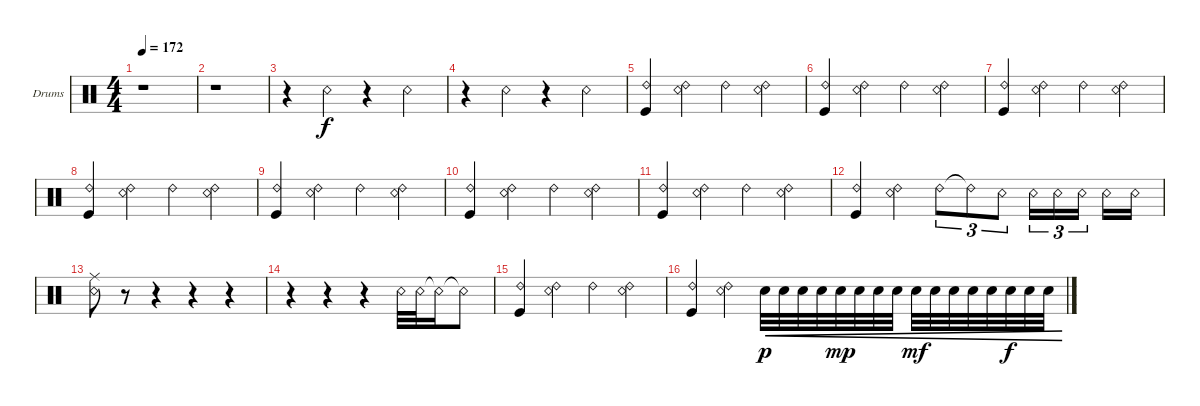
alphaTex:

\defaultSystemsLayout 4
\bracketExtendMode groupsimilarinstruments
\firstSystemTrackNameOrientation horizontal
\otherSystemsTrackNameOrientation horizontal
\track ("Drums" "Drums") {instrument percussion}
\staff {score}
\articulation defaults
\ts (4 4)
\tempo 172
\clef neutral
\scale
0.333333
\ks c
r.1{dy f} |
\scale
0.333333 r.1 |
\scale
0.333333 r.4 "Snare (rim shot)".4 r.4 "Snare (rim shot)".4 |
\scale
0.333333 r.4 "Snare (rim shot)".4 r.4 "Snare (rim shot)".4 |
\scale
0.333333 ("Ride (bell) 2" "Kick (hit)").4 ("Ride (bell) 2" "Snare (rim shot)").4 "Ride (bell) 2".4 ("Snare (rim shot)" "Ride (bell) 2").4 |
\scale
0.333333 ("Ride (bell) 2" "Kick (hit)").4 ("Ride (bell) 2" "Snare (rim shot)").4 "Ride (bell) 2".4 ("Snare (rim shot)" "Ride (bell) 2").4 |
\scale
0.333333 ("Ride (bell) 2" "Kick (hit)").4 ("Ride (bell) 2" "Snare (rim shot)").4 "Ride (bell) 2".4 ("Snare (rim shot)" "Ride (bell) 2").4 |
("Ride (bell) 2" "Kick (hit)").4 ("Ride (bell) 2" "Snare (rim shot)").4 "Ride (bell) 2".4 ("Snare (rim shot)" "Ride (bell) 2").4 |
\scale
0.333333 ("Ride (bell) 2" "Kick (hit)").4 ("Ride (bell) 2" "Snare (rim shot)").4 "Ride (bell) 2".4 ("Snare (rim shot)" "Ride (bell) 2").4 |
\scale
0.333333 ("Ride (bell) 2" "Kick (hit)").4 ("Ride (bell) 2" "Snare (rim shot)").4 "Ride (bell) 2".4 ("Snare (rim shot)" "Ride (bell) 2").4 |
\scale
0.333333 ("Ride (bell) 2" "Kick (hit)").4 ("Ride (bell) 2" "Snare (rim shot)").4 "Ride (bell) 2".4 ("Snare (rim shot)" "Ride (bell) 2").4 |
\scale
0.333333 ("Ride (bell) 2" "Kick (hit)").4 ("Ride (bell) 2" "Snare (rim shot)").4 "Ride (bell) 2".8{tu (3 2)} "Ride (bell) 2"{t}.8{tu (3 2)} "Snare (rim shot)".8{tu (3 2)} "Snare (rim shot)".16{tu (3 2)} "Snare (rim shot)".16{tu (3 2)} "Snare (rim shot)".16{tu (3 2)} "Snare (rim shot)".16 "Snare (rim shot)".16 |
\scale
0.333333 ("Snare (rim shot)" "Ride (middle)").8 r.8 r.4 r.4 r.4 |
\scale
0.333333 r.4 r.4 r.4 "Snare (rim shot)".32 "Snare (rim shot)".32 "Snare (rim shot)"{t}.16 "Snare (rim shot)"{t}.8 |
\scale
0.333333 ("Ride (bell) 2" "Kick (hit)").4 ("Ride (bell) 2" "Snare (rim shot)").4 "Ride (bell) 2".4 ("Snare (rim shot)" "Ride (bell) 2").4 |
\scale
0.333333 ("Ride (bell) 2" "Kick (hit)").4 ("Ride (bell) 2" "Snare (rim shot)").4 "Snare (hit) 2".32{cre dy p} "Snare (hit) 2".32{cre} "Snare (hit) 2".32{cre} "Snare (hit) 2".32{cre} "Snare (hit) 2".32{cre dy mp} "Snare (hit) 2".32{cre} "Snare (hit) 2".32{cre} "Snare (hit) 2".32{cre} "Snare (hit) 2".32{cre dy mf} "Snare (hit) 2".32{cre} "Snare (hit) 2".32{cre} "Snare (hit) 2".32{cre} "Snare (hit) 2".32{cre} "Snare (hit) 2".32{cre dy f} "Snare (hit) 2".32{cre} "Snare (hit) 2".32{cre}
